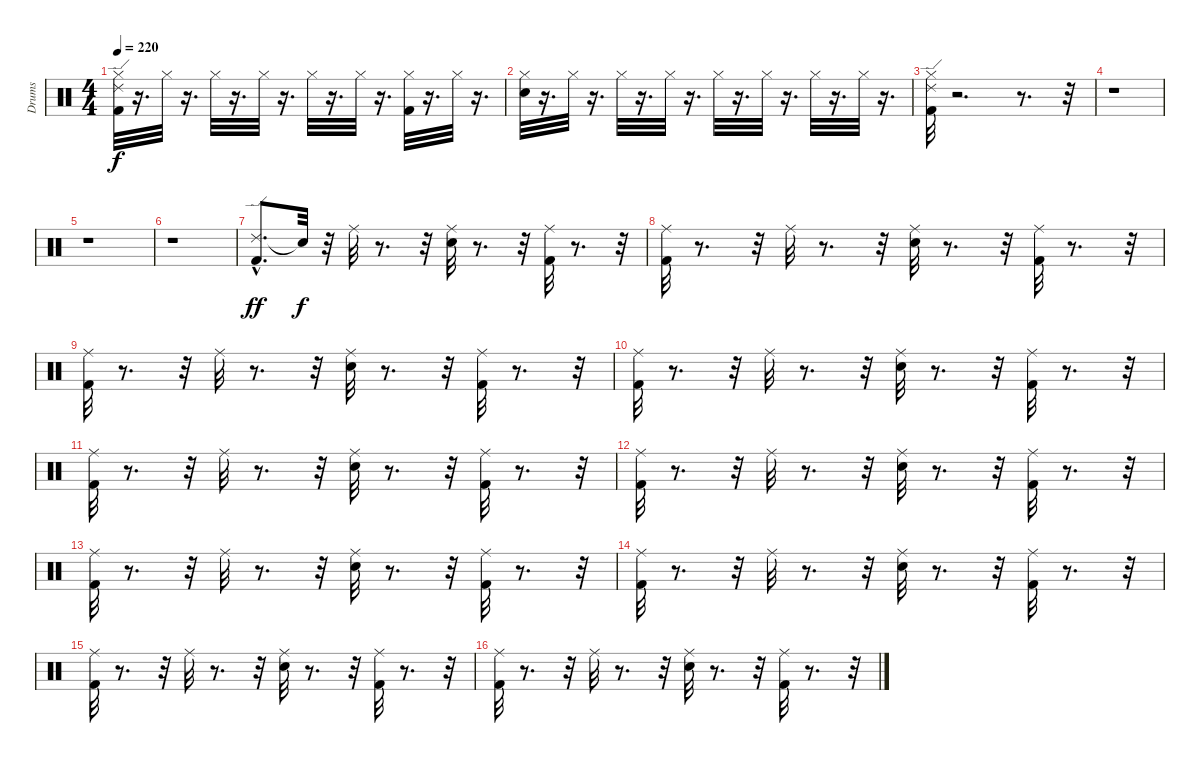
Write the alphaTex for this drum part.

\track ("Drums" "Drums") {instrument percussion}
\staff {score}
\articulation defaults
\ts (4 4)
\tempo 220
\clef neutral
\ks c
("Hi-Hat (closed)" "Kick (hit) 2" "Ride (edge) 2").32{dy f} r.16{d} "Hi-Hat (closed)".32 r.16{d} "Hi-Hat (closed)".32 r.16{d} "Hi-Hat (closed)".32 r.16{d} "Hi-Hat (closed)".32 r.16{d} "Hi-Hat (closed)".32 r.16{d} ("Kick (hit) 2" "Hi-Hat (closed)").32 r.16{d} "Hi-Hat (closed)".32 r.16{d} |
("Hi-Hat (closed)" "Snare (hit) 2").32 r.16{d} "Hi-Hat (closed)".32 r.16{d} "Hi-Hat (closed)".32 r.16{d} "Hi-Hat (closed)".32 r.16{d} "Hi-Hat (closed)".32 r.16{d} "Hi-Hat (closed)".32 r.16{d} "Hi-Hat (closed)".32 r.16{d} "Hi-Hat (closed)".32 r.16{d} |
("Hi-Hat (closed)" "Kick (hit) 2" "Ride (edge) 2").32 r.2{d} r.8{d} r.32 |
r.1 |
r.1 |
r.1 |
("Ride (edge) 2"{hac} "Kick (hit) 2").8{d dy ff} "Snare (hit)"{t}.32{dy f} r.32 "Ride (middle)".32 r.8{d} r.32 ("Ride (middle)" "Snare (hit) 2").32 r.8{d} r.32 ("Ride (middle)" "Kick (hit) 2").32 r.8{d} r.32 |
("Ride (middle)" "Kick (hit) 2").32 r.8{d} r.32 "Ride (middle)".32 r.8{d} r.32 ("Ride (middle)" "Snare (hit) 2").32 r.8{d} r.32 ("Ride (middle)" "Kick (hit) 2").32 r.8{d} r.32 |
("Ride (middle)" "Kick (hit) 2").32 r.8{d} r.32 "Ride (middle)".32 r.8{d} r.32 ("Ride (middle)" "Snare (hit) 2").32 r.8{d} r.32 ("Ride (middle)" "Kick (hit) 2").32 r.8{d} r.32 |
("Ride (middle)" "Kick (hit) 2").32 r.8{d} r.32 "Ride (middle)".32 r.8{d} r.32 ("Ride (middle)" "Snare (hit) 2").32 r.8{d} r.32 ("Ride (middle)" "Kick (hit) 2").32 r.8{d} r.32 |
("Ride (middle)" "Kick (hit) 2").32 r.8{d} r.32 "Ride (middle)".32 r.8{d} r.32 ("Ride (middle)" "Snare (hit) 2").32 r.8{d} r.32 ("Ride (middle)" "Kick (hit) 2").32 r.8{d} r.32 |
("Ride (middle)" "Kick (hit) 2").32 r.8{d} r.32 "Ride (middle)".32 r.8{d} r.32 ("Ride (middle)" "Snare (hit) 2").32 r.8{d} r.32 ("Ride (middle)" "Kick (hit) 2").32 r.8{d} r.32 |
("Ride (middle)" "Kick (hit) 2").32 r.8{d} r.32 "Ride (middle)".32 r.8{d} r.32 ("Ride (middle)" "Snare (hit) 2").32 r.8{d} r.32 ("Ride (middle)" "Kick (hit) 2").32 r.8{d} r.32 |
("Ride (middle)" "Kick (hit) 2").32 r.8{d} r.32 "Ride (middle)".32 r.8{d} r.32 ("Ride (middle)" "Snare (hit) 2").32 r.8{d} r.32 ("Ride (middle)" "Kick (hit) 2").32 r.8{d} r.32 |
("Ride (middle)" "Kick (hit) 2").32 r.8{d} r.32 "Ride (middle)".32 r.8{d} r.32 ("Ride (middle)" "Snare (hit) 2").32 r.8{d} r.32 ("Ride (middle)" "Kick (hit) 2").32 r.8{d} r.32 |
("Ride (middle)" "Kick (hit) 2").32 r.8{d} r.32 "Ride (middle)".32 r.8{d} r.32 ("Ride (middle)" "Snare (hit) 2").32 r.8{d} r.32 ("Ride (middle)" "Kick (hit) 2").32 r.8{d} r.32
